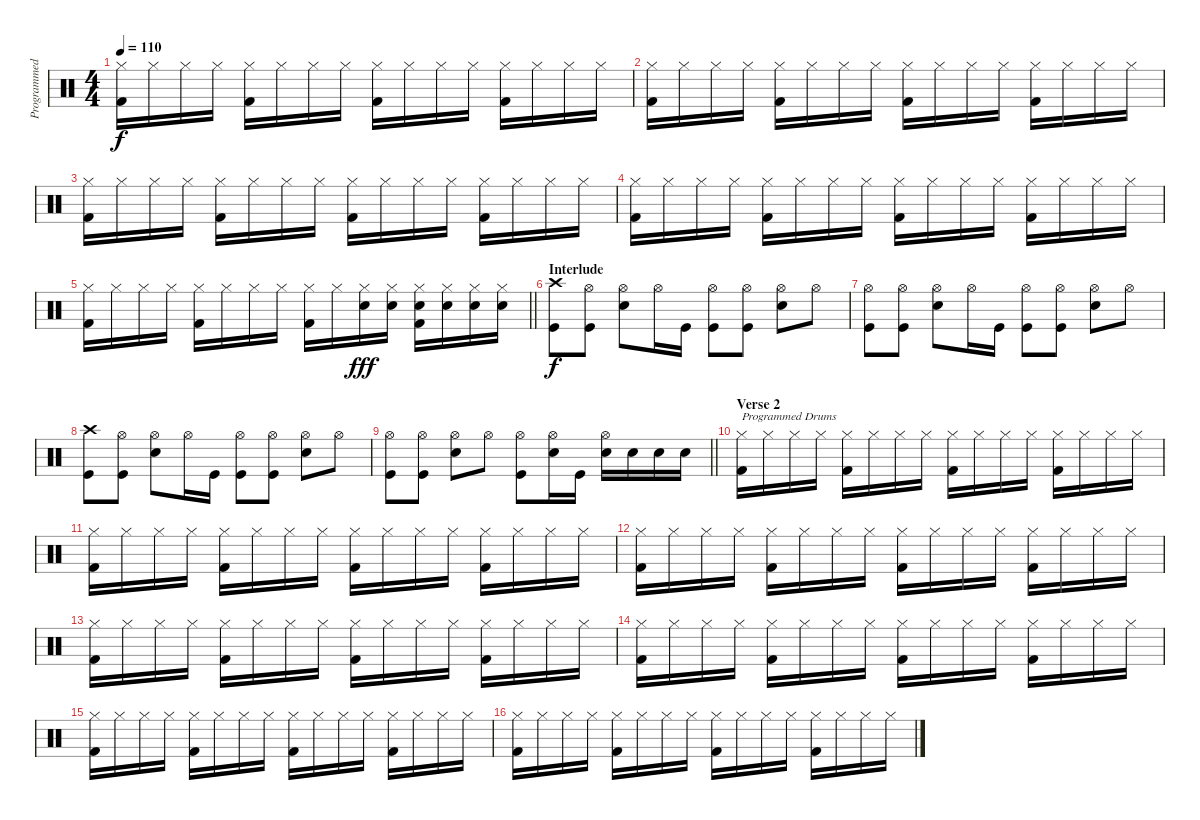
\track ("Programmed Drums" "Programmed") {instrument percussion}
\staff {score}
\articulation defaults
\ts (4 4)
\tempo 110
\clef neutral
\ks c
("Hi-Hat (closed)" "Kick (hit) 2").16{dy f} "Hi-Hat (closed)".16 "Hi-Hat (closed)".16 "Hi-Hat (closed)".16 ("Hi-Hat (closed)" "Kick (hit) 2").16 "Hi-Hat (closed)".16 "Hi-Hat (closed)".16 "Hi-Hat (closed)".16 ("Hi-Hat (closed)" "Kick (hit) 2").16 "Hi-Hat (closed)".16 "Hi-Hat (closed)".16 "Hi-Hat (closed)".16 ("Hi-Hat (closed)" "Kick (hit) 2").16 "Hi-Hat (closed)".16 "Hi-Hat (closed)".16 "Hi-Hat (closed)".16 |
("Hi-Hat (closed)" "Kick (hit) 2").16 "Hi-Hat (closed)".16 "Hi-Hat (closed)".16 "Hi-Hat (closed)".16 ("Hi-Hat (closed)" "Kick (hit) 2").16 "Hi-Hat (closed)".16 "Hi-Hat (closed)".16 "Hi-Hat (closed)".16 ("Hi-Hat (closed)" "Kick (hit) 2").16 "Hi-Hat (closed)".16 "Hi-Hat (closed)".16 "Hi-Hat (closed)".16 ("Hi-Hat (closed)" "Kick (hit) 2").16 "Hi-Hat (closed)".16 "Hi-Hat (closed)".16 "Hi-Hat (closed)".16 |
("Hi-Hat (closed)" "Kick (hit) 2").16 "Hi-Hat (closed)".16 "Hi-Hat (closed)".16 "Hi-Hat (closed)".16 ("Hi-Hat (closed)" "Kick (hit) 2").16 "Hi-Hat (closed)".16 "Hi-Hat (closed)".16 "Hi-Hat (closed)".16 ("Hi-Hat (closed)" "Kick (hit) 2").16 "Hi-Hat (closed)".16 "Hi-Hat (closed)".16 "Hi-Hat (closed)".16 ("Hi-Hat (closed)" "Kick (hit) 2").16 "Hi-Hat (closed)".16 "Hi-Hat (closed)".16 "Hi-Hat (closed)".16 |
("Hi-Hat (closed)" "Kick (hit) 2").16 "Hi-Hat (closed)".16 "Hi-Hat (closed)".16 "Hi-Hat (closed)".16 ("Hi-Hat (closed)" "Kick (hit) 2").16 "Hi-Hat (closed)".16 "Hi-Hat (closed)".16 "Hi-Hat (closed)".16 ("Hi-Hat (closed)" "Kick (hit) 2").16 "Hi-Hat (closed)".16 "Hi-Hat (closed)".16 "Hi-Hat (closed)".16 ("Hi-Hat (closed)" "Kick (hit) 2").16 "Hi-Hat (closed)".16 "Hi-Hat (closed)".16 "Hi-Hat (closed)".16 |
\barLineRight lightlight
("Hi-Hat (closed)" "Kick (hit) 2").16 "Hi-Hat (closed)".16 "Hi-Hat (closed)".16 "Hi-Hat (closed)".16 ("Hi-Hat (closed)" "Kick (hit) 2").16 "Hi-Hat (closed)".16 "Hi-Hat (closed)".16 "Hi-Hat (closed)".16 ("Hi-Hat (closed)" "Kick (hit) 2").16 "Hi-Hat (closed)".16 ("Hi-Hat (closed)" "Electric Snare (hit)").16{dy fff} ("Hi-Hat (closed)" "Electric Snare (hit)").16 ("Hi-Hat (closed)" "Electric Snare (hit)" "Kick (hit) 2").16 ("Hi-Hat (closed)" "Electric Snare (hit)").16 ("Hi-Hat (closed)" "Electric Snare (hit)").16 ("Hi-Hat (closed)" "Electric Snare (hit)").16 |
\section ("" "Interlude")
("Crash high (hit)" "Kick (hit)").8{dy f volume 14} ("Hi-Hat (open)" "Kick (hit)").8 ("Hi-Hat (open)" "Electric Snare (hit)").8 "Hi-Hat (open)".16 "Kick (hit)".16 ("Hi-Hat (open)" "Kick (hit)").8 ("Hi-Hat (open)" "Kick (hit)").8 ("Hi-Hat (open)" "Electric Snare (hit)").8 "Hi-Hat (open)".8 |
("Hi-Hat (open)" "Kick (hit)").8 ("Hi-Hat (open)" "Kick (hit)").8 ("Hi-Hat (open)" "Electric Snare (hit)").8 "Hi-Hat (open)".16 "Kick (hit)".16 ("Hi-Hat (open)" "Kick (hit)").8 ("Hi-Hat (open)" "Kick (hit)").8 ("Hi-Hat (open)" "Electric Snare (hit)").8 "Hi-Hat (open)".8 |
("Crash high (hit)" "Kick (hit)").8 ("Hi-Hat (open)" "Kick (hit)").8 ("Hi-Hat (open)" "Electric Snare (hit)").8 "Hi-Hat (open)".16 "Kick (hit)".16 ("Hi-Hat (open)" "Kick (hit)").8 ("Hi-Hat (open)" "Kick (hit)").8 ("Hi-Hat (open)" "Electric Snare (hit)").8 "Hi-Hat (open)".8 |
\barLineRight lightlight
("Hi-Hat (open)" "Kick (hit)").8 ("Hi-Hat (open)" "Kick (hit)").8 ("Hi-Hat (open)" "Electric Snare (hit)").8 "Hi-Hat (open)".8 ("Hi-Hat (open)" "Kick (hit)").8 ("Hi-Hat (open)" "Electric Snare (hit)").16 "Kick (hit)".16 ("Hi-Hat (open)" "Electric Snare (hit)").16 "Electric Snare (hit)".16 "Electric Snare (hit)".16 "Electric Snare (hit)".16 |
\section ("" "Verse 2")
("Hi-Hat (closed)" "Kick (hit) 2").16{txt "Programmed Drums" volume 10} "Hi-Hat (closed)".16 "Hi-Hat (closed)".16 "Hi-Hat (closed)".16 ("Hi-Hat (closed)" "Kick (hit) 2").16 "Hi-Hat (closed)".16 "Hi-Hat (closed)".16 "Hi-Hat (closed)".16 ("Hi-Hat (closed)" "Kick (hit) 2").16 "Hi-Hat (closed)".16 "Hi-Hat (closed)".16 "Hi-Hat (closed)".16 ("Hi-Hat (closed)" "Kick (hit) 2").16 "Hi-Hat (closed)".16 "Hi-Hat (closed)".16 "Hi-Hat (closed)".16 |
("Hi-Hat (closed)" "Kick (hit) 2").16 "Hi-Hat (closed)".16 "Hi-Hat (closed)".16 "Hi-Hat (closed)".16 ("Hi-Hat (closed)" "Kick (hit) 2").16 "Hi-Hat (closed)".16 "Hi-Hat (closed)".16 "Hi-Hat (closed)".16 ("Hi-Hat (closed)" "Kick (hit) 2").16 "Hi-Hat (closed)".16 "Hi-Hat (closed)".16 "Hi-Hat (closed)".16 ("Hi-Hat (closed)" "Kick (hit) 2").16 "Hi-Hat (closed)".16 "Hi-Hat (closed)".16 "Hi-Hat (closed)".16 |
("Hi-Hat (closed)" "Kick (hit) 2").16 "Hi-Hat (closed)".16 "Hi-Hat (closed)".16 "Hi-Hat (closed)".16 ("Hi-Hat (closed)" "Kick (hit) 2").16 "Hi-Hat (closed)".16 "Hi-Hat (closed)".16 "Hi-Hat (closed)".16 ("Hi-Hat (closed)" "Kick (hit) 2").16 "Hi-Hat (closed)".16 "Hi-Hat (closed)".16 "Hi-Hat (closed)".16 ("Hi-Hat (closed)" "Kick (hit) 2").16 "Hi-Hat (closed)".16 "Hi-Hat (closed)".16 "Hi-Hat (closed)".16 |
("Hi-Hat (closed)" "Kick (hit) 2").16 "Hi-Hat (closed)".16 "Hi-Hat (closed)".16 "Hi-Hat (closed)".16 ("Hi-Hat (closed)" "Kick (hit) 2").16 "Hi-Hat (closed)".16 "Hi-Hat (closed)".16 "Hi-Hat (closed)".16 ("Hi-Hat (closed)" "Kick (hit) 2").16 "Hi-Hat (closed)".16 "Hi-Hat (closed)".16 "Hi-Hat (closed)".16 ("Hi-Hat (closed)" "Kick (hit) 2").16 "Hi-Hat (closed)".16 "Hi-Hat (closed)".16 "Hi-Hat (closed)".16 |
("Hi-Hat (closed)" "Kick (hit) 2").16 "Hi-Hat (closed)".16 "Hi-Hat (closed)".16 "Hi-Hat (closed)".16 ("Hi-Hat (closed)" "Kick (hit) 2").16 "Hi-Hat (closed)".16 "Hi-Hat (closed)".16 "Hi-Hat (closed)".16 ("Hi-Hat (closed)" "Kick (hit) 2").16 "Hi-Hat (closed)".16 "Hi-Hat (closed)".16 "Hi-Hat (closed)".16 ("Hi-Hat (closed)" "Kick (hit) 2").16 "Hi-Hat (closed)".16 "Hi-Hat (closed)".16 "Hi-Hat (closed)".16 |
("Hi-Hat (closed)" "Kick (hit) 2").16 "Hi-Hat (closed)".16 "Hi-Hat (closed)".16 "Hi-Hat (closed)".16 ("Hi-Hat (closed)" "Kick (hit) 2").16 "Hi-Hat (closed)".16 "Hi-Hat (closed)".16 "Hi-Hat (closed)".16 ("Hi-Hat (closed)" "Kick (hit) 2").16 "Hi-Hat (closed)".16 "Hi-Hat (closed)".16 "Hi-Hat (closed)".16 ("Hi-Hat (closed)" "Kick (hit) 2").16 "Hi-Hat (closed)".16 "Hi-Hat (closed)".16 "Hi-Hat (closed)".16 |
("Hi-Hat (closed)" "Kick (hit) 2").16 "Hi-Hat (closed)".16 "Hi-Hat (closed)".16 "Hi-Hat (closed)".16 ("Hi-Hat (closed)" "Kick (hit) 2").16 "Hi-Hat (closed)".16 "Hi-Hat (closed)".16 "Hi-Hat (closed)".16 ("Hi-Hat (closed)" "Kick (hit) 2").16 "Hi-Hat (closed)".16 "Hi-Hat (closed)".16 "Hi-Hat (closed)".16 ("Hi-Hat (closed)" "Kick (hit) 2").16 "Hi-Hat (closed)".16 "Hi-Hat (closed)".16 "Hi-Hat (closed)".16
